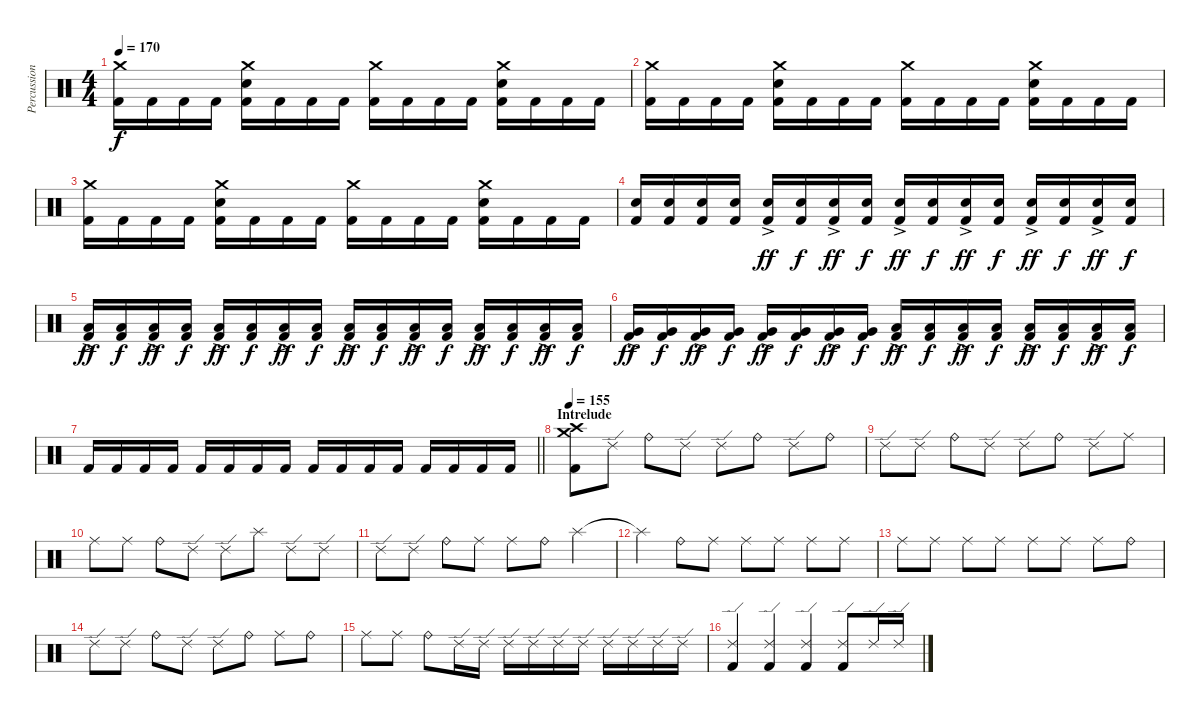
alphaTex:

\track ("Percussion" "Percussion") {instrument percussion}
\staff {score}
\articulation defaults
\ts (4 4)
\tempo 170
\clef neutral
\ks c
("Crash medium (hit)" "Kick (hit) 2").16{dy f} "Kick (hit) 2".16 "Kick (hit) 2".16 "Kick (hit) 2".16 ("Crash medium (hit)" "Electric Snare (hit)" "Kick (hit) 2").16 "Kick (hit) 2".16 "Kick (hit) 2".16 "Kick (hit) 2".16 ("Crash medium (hit)" "Kick (hit) 2").16 "Kick (hit) 2".16 "Kick (hit) 2".16 "Kick (hit) 2".16 ("Crash medium (hit)" "Electric Snare (hit)" "Kick (hit) 2").16 "Kick (hit) 2".16 "Kick (hit) 2".16 "Kick (hit) 2".16 |
("Crash medium (hit)" "Kick (hit) 2").16 "Kick (hit) 2".16 "Kick (hit) 2".16 "Kick (hit) 2".16 ("Crash medium (hit)" "Electric Snare (hit)" "Kick (hit) 2").16 "Kick (hit) 2".16 "Kick (hit) 2".16 "Kick (hit) 2".16 ("Crash medium (hit)" "Kick (hit) 2").16 "Kick (hit) 2".16 "Kick (hit) 2".16 "Kick (hit) 2".16 ("Crash medium (hit)" "Electric Snare (hit)" "Kick (hit) 2").16 "Kick (hit) 2".16 "Kick (hit) 2".16 "Kick (hit) 2".16 |
("Crash medium (hit)" "Kick (hit) 2").16 "Kick (hit) 2".16 "Kick (hit) 2".16 "Kick (hit) 2".16 ("Crash medium (hit)" "Electric Snare (hit)" "Kick (hit) 2").16 "Kick (hit) 2".16 "Kick (hit) 2".16 "Kick (hit) 2".16 ("Crash medium (hit)" "Kick (hit) 2").16 "Kick (hit) 2".16 "Kick (hit) 2".16 "Kick (hit) 2".16 ("Crash medium (hit)" "Electric Snare (hit)" "Kick (hit) 2").16 "Kick (hit) 2".16 "Kick (hit) 2".16 "Kick (hit) 2".16 |
("Electric Snare (hit)" "Kick (hit) 2").16 ("Electric Snare (hit)" "Kick (hit) 2").16 ("Electric Snare (hit)" "Kick (hit) 2").16 ("Electric Snare (hit)" "Kick (hit) 2").16 ("Electric Snare (hit)"{ac} "Kick (hit) 2").16{dy ff} ("Electric Snare (hit)" "Kick (hit) 2").16{dy f} ("Electric Snare (hit)"{ac} "Kick (hit) 2").16{dy ff} ("Electric Snare (hit)" "Kick (hit) 2").16{dy f} ("Electric Snare (hit)"{ac} "Kick (hit) 2").16{dy ff} ("Electric Snare (hit)" "Kick (hit) 2").16{dy f} ("Electric Snare (hit)"{ac} "Kick (hit) 2").16{dy ff} ("Electric Snare (hit)" "Kick (hit) 2").16{dy f} ("Electric Snare (hit)"{ac} "Kick (hit) 2").16{dy ff} ("Electric Snare (hit)" "Kick (hit) 2").16{dy f} ("Electric Snare (hit)"{ac} "Kick (hit) 2").16{dy ff} ("Electric Snare (hit)" "Kick (hit) 2").16{dy f} |
("Low Tom (hit)"{ac} "Kick (hit) 2").16{dy ff} ("Low Tom (hit)" "Kick (hit) 2").16{dy f} ("Low Tom (hit)"{ac} "Kick (hit) 2").16{dy ff} ("Low Tom (hit)" "Kick (hit) 2").16{dy f} ("Low Tom (hit)"{ac} "Kick (hit) 2").16{dy ff} ("Low Tom (hit)" "Kick (hit) 2").16{dy f} ("Low Tom (hit)"{ac} "Kick (hit) 2").16{dy ff} ("Low Tom (hit)" "Kick (hit) 2").16{dy f} ("Low Tom (hit)"{ac} "Kick (hit) 2").16{dy ff} ("Low Tom (hit)" "Kick (hit) 2").16{dy f} ("Low Tom (hit)"{ac} "Kick (hit) 2").16{dy ff} ("Low Tom (hit)" "Kick (hit) 2").16{dy f} ("Low Tom (hit)"{ac} "Kick (hit) 2").16{dy ff} ("Low Tom (hit)" "Kick (hit) 2").16{dy f} ("Low Tom (hit)"{ac} "Kick (hit) 2").16{dy ff} ("Low Tom (hit)" "Kick (hit) 2").16{dy f} |
("Very Low Tom (hit)"{ac} "Kick (hit) 2").16{dy ff} ("Very Low Tom (hit)" "Kick (hit) 2").16{dy f} ("Very Low Tom (hit)"{ac} "Kick (hit) 2").16{dy ff} ("Very Low Tom (hit)" "Kick (hit) 2").16{dy f} ("Very Low Tom (hit)"{ac} "Kick (hit) 2").16{dy ff} ("Very Low Tom (hit)" "Kick (hit) 2").16{dy f} ("Very Low Tom (hit)"{ac} "Kick (hit) 2").16{dy ff} ("Very Low Tom (hit)" "Kick (hit) 2").16{dy f} ("Low Floor Tom (hit)"{ac} "Kick (hit) 2").16{dy ff} ("Low Floor Tom (hit)" "Kick (hit) 2").16{dy f} ("Low Floor Tom (hit)"{ac} "Kick (hit) 2").16{dy ff} ("Low Floor Tom (hit)" "Kick (hit) 2").16{dy f} ("Low Floor Tom (hit)"{ac} "Kick (hit) 2").16{dy ff} ("Low Floor Tom (hit)" "Kick (hit) 2").16{dy f} ("Low Floor Tom (hit)"{ac} "Kick (hit) 2").16{dy ff} ("Low Floor Tom (hit)" "Kick (hit) 2").16{dy f} |
\barLineRight lightlight "Kick (hit) 2".16 "Kick (hit) 2".16 "Kick (hit) 2".16 "Kick (hit) 2".16 "Kick (hit) 2".16 "Kick (hit) 2".16 "Kick (hit) 2".16 "Kick (hit) 2".16 "Kick (hit) 2".16 "Kick (hit) 2".16 "Kick (hit) 2".16 "Kick (hit) 2".16 "Kick (hit) 2".16 "Kick (hit) 2".16 "Kick (hit) 2".16 "Kick (hit) 2".16
|
\section ("" "Intrelude")
\tempo 155
("Crash medium (hit)" "Crash high (hit)" "Kick (hit) 2").8 "Ride (edge) 2".8 "Ride (bell)".8 "Ride (edge) 2".8 "Ride (edge) 2".8 "Ride (bell)".8 "Ride (edge) 2".8 "Ride (bell)".8 |
"Ride (edge) 2".8 "Ride (edge) 2".8 "Ride (bell)".8 "Ride (edge) 2".8 "Ride (edge) 2".8 "Ride (bell)".8 "Ride (edge) 2".8 "Ride (middle)".8 |
"Ride (middle)".8 "Ride (middle)".8 "Ride (bell)".8 "Ride (edge) 2".8 "Ride (edge) 2".8 "Splash (hit)".8 "Ride (edge) 2".8 "Ride (edge) 2".8 |
"Ride (edge) 2".8 "Ride (edge) 2".8 "Ride (bell)".8 "Ride (middle)".8 "Ride (middle)".8 "Ride (bell)".8 "Splash (hit)".4 |
"Splash (hit)"{t}.4 "Ride (bell)".8 "Ride (middle)".8 "Ride (middle)".8 "Ride (middle)".8 "Ride (middle)".8 "Ride (middle)".8 |
"Ride (middle)".8 "Ride (middle)".8 "Ride (middle)".8 "Ride (middle)".8 "Ride (middle)".8 "Ride (middle)".8 "Ride (middle)".8 "Ride (bell)".8 |
"Ride (edge) 2".8 "Ride (edge) 2".8 "Ride (bell)".8 "Ride (edge) 2".8 "Ride (edge) 2".8 "Ride (bell)".8 "Ride (middle)".8 "Ride (bell)".8 |
"Ride (middle)".8 "Ride (middle)".8 "Ride (bell)".8 "Ride (edge) 2".16 "Ride (edge) 2".16 "Ride (edge) 2".16 "Ride (edge) 2".16 "Ride (edge) 2".16 "Ride (edge) 2".16 "Ride (edge) 2".16 "Ride (edge) 2".16 "Ride (edge) 2".16 "Ride (edge) 2".16 |
("Ride (edge) 2" "Kick (hit) 2").4 ("Ride (edge) 2" "Kick (hit) 2").4 ("Ride (edge) 2" "Kick (hit) 2").4 ("Ride (edge) 2" "Kick (hit) 2").8 "Ride (edge) 2".16 "Ride (edge) 2".16
